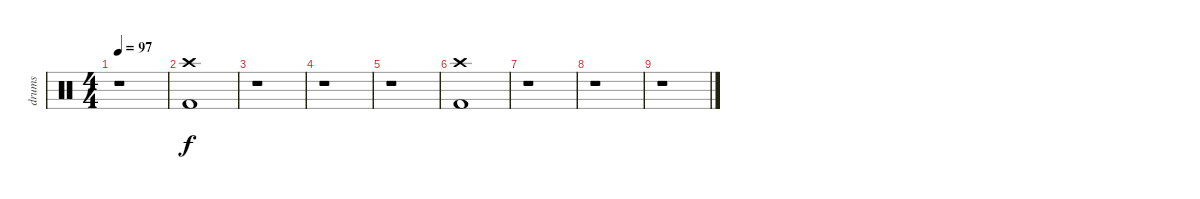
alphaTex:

\track ("drums" "drums") {instrument percussion}
\staff {score}
\articulation defaults
\ts (4 4)
\tempo 97
\clef neutral
\ks c
r.1{dy f} |
("Crash high (hit)" "Kick (hit) 2").1 |
r.1 |
r.1 |
r.1 |
("Crash high (hit)" "Kick (hit) 2").1 |
r.1 |
r.1 |
r.1
